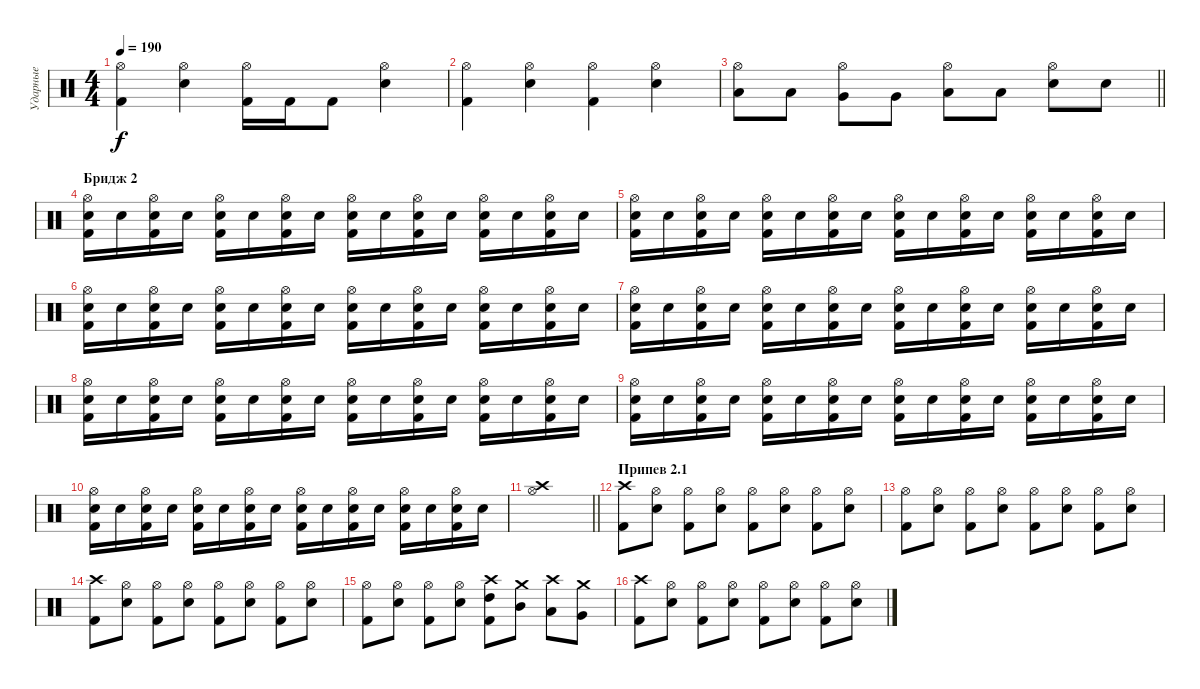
\track ("Ударные" "Ударные") {instrument percussion}
\staff {score}
\articulation defaults
\ts (4 4)
\tempo 190
\clef neutral
\ks c
("Hi-Hat (open)" "Kick (hit) 2").4{dy f} ("Hi-Hat (open)" "Electric Snare (hit)").4 ("Hi-Hat (open)" "Kick (hit) 2").16 "Kick (hit) 2".16 "Kick (hit) 2".8 ("Hi-Hat (open)" "Electric Snare (hit)").4 |
("Hi-Hat (open)" "Kick (hit) 2").4 ("Hi-Hat (open)" "Electric Snare (hit)").4 ("Hi-Hat (open)" "Kick (hit) 2").4 ("Hi-Hat (open)" "Electric Snare (hit)").4 |
\barLineRight lightlight
("Hi-Hat (open)" "Low Tom (hit)").8 "Low Tom (hit)".8 ("Hi-Hat (open)" "Very Low Tom (hit)").8 "Very Low Tom (hit)".8 ("Hi-Hat (open)" "Low Floor Tom (hit)").8 "Low Floor Tom (hit)".8 ("Hi-Hat (open)" "Electric Snare (hit)").8 "Electric Snare (hit)".8 |
\section ("" "Бридж 2")
("Electric Snare (hit)" "Hi-Hat (open)" "Kick (hit) 2").16 "Snare (hit) 2".16 ("Electric Snare (hit)" "Hi-Hat (open)" "Kick (hit) 2").16 "Snare (hit) 2".16 ("Electric Snare (hit)" "Hi-Hat (open)" "Kick (hit) 2").16 "Snare (hit) 2".16 ("Electric Snare (hit)" "Hi-Hat (open)" "Kick (hit) 2").16 "Snare (hit) 2".16 ("Electric Snare (hit)" "Hi-Hat (open)" "Kick (hit) 2").16 "Snare (hit) 2".16 ("Electric Snare (hit)" "Hi-Hat (open)" "Kick (hit) 2").16 "Snare (hit) 2".16 ("Electric Snare (hit)" "Hi-Hat (open)" "Kick (hit) 2").16 "Snare (hit) 2".16 ("Electric Snare (hit)" "Hi-Hat (open)" "Kick (hit) 2").16 "Snare (hit) 2".16 |
("Electric Snare (hit)" "Hi-Hat (open)" "Kick (hit) 2").16 "Snare (hit) 2".16 ("Electric Snare (hit)" "Hi-Hat (open)" "Kick (hit) 2").16 "Snare (hit) 2".16 ("Electric Snare (hit)" "Hi-Hat (open)" "Kick (hit) 2").16 "Snare (hit) 2".16 ("Electric Snare (hit)" "Hi-Hat (open)" "Kick (hit) 2").16 "Snare (hit) 2".16 ("Electric Snare (hit)" "Hi-Hat (open)" "Kick (hit) 2").16 "Snare (hit) 2".16 ("Electric Snare (hit)" "Hi-Hat (open)" "Kick (hit) 2").16 "Snare (hit) 2".16 ("Electric Snare (hit)" "Hi-Hat (open)" "Kick (hit) 2").16 "Snare (hit) 2".16 ("Electric Snare (hit)" "Hi-Hat (open)" "Kick (hit) 2").16 "Snare (hit) 2".16 |
("Electric Snare (hit)" "Hi-Hat (open)" "Kick (hit) 2").16 "Snare (hit) 2".16 ("Electric Snare (hit)" "Hi-Hat (open)" "Kick (hit) 2").16 "Snare (hit) 2".16 ("Electric Snare (hit)" "Hi-Hat (open)" "Kick (hit) 2").16 "Snare (hit) 2".16 ("Electric Snare (hit)" "Hi-Hat (open)" "Kick (hit) 2").16 "Snare (hit) 2".16 ("Electric Snare (hit)" "Hi-Hat (open)" "Kick (hit) 2").16 "Snare (hit) 2".16 ("Electric Snare (hit)" "Hi-Hat (open)" "Kick (hit) 2").16 "Snare (hit) 2".16 ("Electric Snare (hit)" "Hi-Hat (open)" "Kick (hit) 2").16 "Snare (hit) 2".16 ("Electric Snare (hit)" "Hi-Hat (open)" "Kick (hit) 2").16 "Snare (hit) 2".16 |
("Electric Snare (hit)" "Hi-Hat (open)" "Kick (hit) 2").16 "Snare (hit) 2".16 ("Electric Snare (hit)" "Hi-Hat (open)" "Kick (hit) 2").16 "Snare (hit) 2".16 ("Electric Snare (hit)" "Hi-Hat (open)" "Kick (hit) 2").16 "Snare (hit) 2".16 ("Electric Snare (hit)" "Hi-Hat (open)" "Kick (hit) 2").16 "Snare (hit) 2".16 ("Electric Snare (hit)" "Hi-Hat (open)" "Kick (hit) 2").16 "Snare (hit) 2".16 ("Electric Snare (hit)" "Hi-Hat (open)" "Kick (hit) 2").16 "Snare (hit) 2".16 ("Electric Snare (hit)" "Hi-Hat (open)" "Kick (hit) 2").16 "Snare (hit) 2".16 ("Electric Snare (hit)" "Hi-Hat (open)" "Kick (hit) 2").16 "Snare (hit) 2".16 |
("Electric Snare (hit)" "Hi-Hat (open)" "Kick (hit) 2").16 "Snare (hit) 2".16 ("Electric Snare (hit)" "Hi-Hat (open)" "Kick (hit) 2").16 "Snare (hit) 2".16 ("Electric Snare (hit)" "Hi-Hat (open)" "Kick (hit) 2").16 "Snare (hit) 2".16 ("Electric Snare (hit)" "Hi-Hat (open)" "Kick (hit) 2").16 "Snare (hit) 2".16 ("Electric Snare (hit)" "Hi-Hat (open)" "Kick (hit) 2").16 "Snare (hit) 2".16 ("Electric Snare (hit)" "Hi-Hat (open)" "Kick (hit) 2").16 "Snare (hit) 2".16 ("Electric Snare (hit)" "Hi-Hat (open)" "Kick (hit) 2").16 "Snare (hit) 2".16 ("Electric Snare (hit)" "Hi-Hat (open)" "Kick (hit) 2").16 "Snare (hit) 2".16 |
("Electric Snare (hit)" "Hi-Hat (open)" "Kick (hit) 2").16 "Snare (hit) 2".16 ("Electric Snare (hit)" "Hi-Hat (open)" "Kick (hit) 2").16 "Snare (hit) 2".16 ("Electric Snare (hit)" "Hi-Hat (open)" "Kick (hit) 2").16 "Snare (hit) 2".16 ("Electric Snare (hit)" "Hi-Hat (open)" "Kick (hit) 2").16 "Snare (hit) 2".16 ("Electric Snare (hit)" "Hi-Hat (open)" "Kick (hit) 2").16 "Snare (hit) 2".16 ("Electric Snare (hit)" "Hi-Hat (open)" "Kick (hit) 2").16 "Snare (hit) 2".16 ("Electric Snare (hit)" "Hi-Hat (open)" "Kick (hit) 2").16 "Snare (hit) 2".16 ("Electric Snare (hit)" "Hi-Hat (open)" "Kick (hit) 2").16 "Snare (hit) 2".16 |
("Electric Snare (hit)" "Hi-Hat (open)" "Kick (hit) 2").16 "Snare (hit) 2".16 ("Electric Snare (hit)" "Hi-Hat (open)" "Kick (hit) 2").16 "Snare (hit) 2".16 ("Electric Snare (hit)" "Hi-Hat (open)" "Kick (hit) 2").16 "Snare (hit) 2".16 ("Electric Snare (hit)" "Hi-Hat (open)" "Kick (hit) 2").16 "Snare (hit) 2".16 ("Electric Snare (hit)" "Hi-Hat (open)" "Kick (hit) 2").16 "Snare (hit) 2".16 ("Electric Snare (hit)" "Hi-Hat (open)" "Kick (hit) 2").16 "Snare (hit) 2".16 ("Electric Snare (hit)" "Hi-Hat (open)" "Kick (hit) 2").16 "Snare (hit) 2".16 ("Electric Snare (hit)" "Hi-Hat (open)" "Kick (hit) 2").16 "Snare (hit) 2".16 |
\barLineRight lightlight
("Crash high (hit)" "Hi-Hat (open)").1 |
\section ("" "Припев 2.1")
("Crash high (hit)" "Kick (hit) 2").8 ("Hi-Hat (open)" "Snare (hit) 2").8 ("Hi-Hat (open)" "Kick (hit) 2").8 ("Hi-Hat (open)" "Snare (hit) 2").8 ("Hi-Hat (open)" "Kick (hit) 2").8 ("Hi-Hat (open)" "Snare (hit) 2").8 ("Hi-Hat (open)" "Kick (hit) 2").8 ("Hi-Hat (open)" "Snare (hit) 2").8 |
("Hi-Hat (open)" "Kick (hit) 2").8 ("Hi-Hat (open)" "Snare (hit) 2").8 ("Hi-Hat (open)" "Kick (hit) 2").8 ("Hi-Hat (open)" "Snare (hit) 2").8 ("Hi-Hat (open)" "Kick (hit) 2").8 ("Hi-Hat (open)" "Snare (hit) 2").8 ("Hi-Hat (open)" "Kick (hit) 2").8 ("Hi-Hat (open)" "Snare (hit) 2").8 |
("Crash high (hit)" "Kick (hit) 2").8 ("Hi-Hat (open)" "Snare (hit) 2").8 ("Hi-Hat (open)" "Kick (hit) 2").8 ("Hi-Hat (open)" "Snare (hit) 2").8 ("Hi-Hat (open)" "Kick (hit) 2").8 ("Hi-Hat (open)" "Snare (hit) 2").8 ("Hi-Hat (open)" "Kick (hit) 2").8 ("Hi-Hat (open)" "Snare (hit) 2").8 |
("Hi-Hat (open)" "Kick (hit) 2").8 ("Hi-Hat (open)" "Snare (hit) 2").8 ("Hi-Hat (open)" "Kick (hit) 2").8 ("Hi-Hat (open)" "Snare (hit) 2").8 ("Crash high (hit)" "High Tom (hit)" "Kick (hit) 2").8 ("Crash medium (hit)" "Mid Tom (hit)").8 ("Crash high (hit)" "Low Tom (hit)").8 ("Crash medium (hit)" "Very Low Tom (hit)").8 |
("Crash high (hit)" "Kick (hit) 2").8 ("Hi-Hat (open)" "Snare (hit) 2").8 ("Hi-Hat (open)" "Kick (hit) 2").8 ("Hi-Hat (open)" "Snare (hit) 2").8 ("Hi-Hat (open)" "Kick (hit) 2").8 ("Hi-Hat (open)" "Snare (hit) 2").8 ("Hi-Hat (open)" "Kick (hit) 2").8 ("Hi-Hat (open)" "Snare (hit) 2").8
